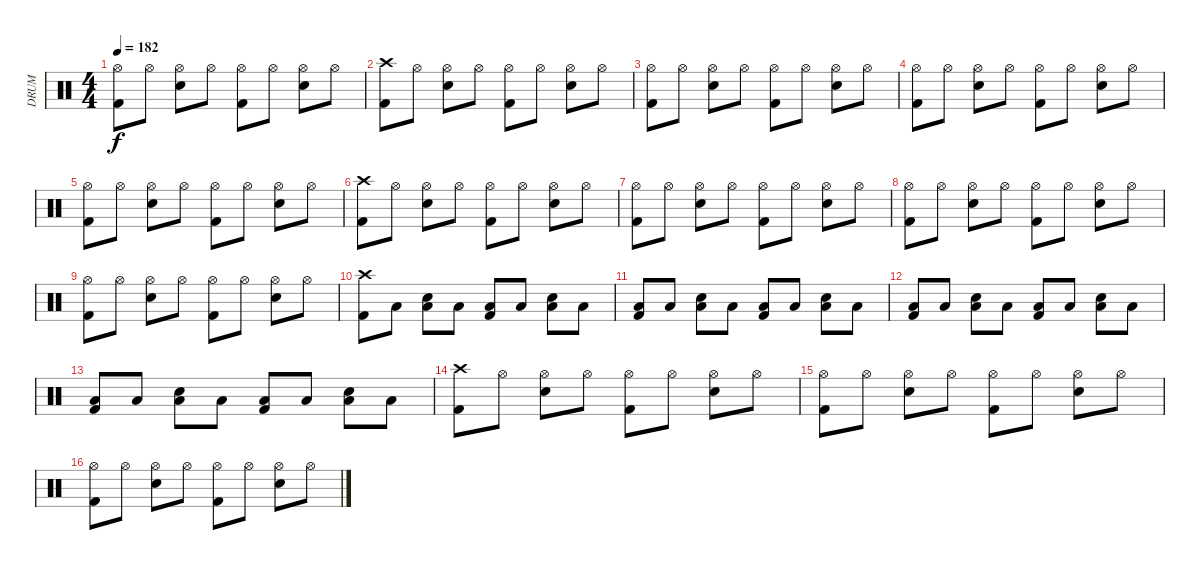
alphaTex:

\track ("DRUM" "DRUM") {instrument percussion}
\staff {score}
\articulation defaults
\ts (4 4)
\tempo 182
\clef neutral
\ks c
("Hi-Hat (open)" "Kick (hit) 2").8{dy f} "Hi-Hat (open)".8{volume 9} ("Hi-Hat (open)" "Snare (hit) 2").8 "Hi-Hat (open)".8{volume 9} ("Hi-Hat (open)" "Kick (hit) 2").8 "Hi-Hat (open)".8{volume 9} ("Hi-Hat (open)" "Snare (hit) 2").8 "Hi-Hat (open)".8{volume 9} |
("Crash high (hit)" "Kick (hit) 2").8 "Hi-Hat (open)".8{volume 9} ("Hi-Hat (open)" "Snare (hit) 2").8 "Hi-Hat (open)".8{volume 9} ("Hi-Hat (open)" "Kick (hit) 2").8 "Hi-Hat (open)".8{volume 9} ("Hi-Hat (open)" "Snare (hit) 2").8 "Hi-Hat (open)".8{volume 9} |
("Hi-Hat (open)" "Kick (hit) 2").8 "Hi-Hat (open)".8{volume 9} ("Hi-Hat (open)" "Snare (hit) 2").8 "Hi-Hat (open)".8{volume 9} ("Hi-Hat (open)" "Kick (hit) 2").8 "Hi-Hat (open)".8{volume 9} ("Hi-Hat (open)" "Snare (hit) 2").8 "Hi-Hat (open)".8{volume 9} |
("Hi-Hat (open)" "Kick (hit) 2").8 "Hi-Hat (open)".8{volume 9} ("Hi-Hat (open)" "Snare (hit) 2").8 "Hi-Hat (open)".8{volume 9} ("Hi-Hat (open)" "Kick (hit) 2").8 "Hi-Hat (open)".8{volume 9} ("Hi-Hat (open)" "Snare (hit) 2").8 "Hi-Hat (open)".8{volume 9} |
("Hi-Hat (open)" "Kick (hit) 2").8 "Hi-Hat (open)".8{volume 9} ("Hi-Hat (open)" "Snare (hit) 2").8 "Hi-Hat (open)".8{volume 9} ("Hi-Hat (open)" "Kick (hit) 2").8 "Hi-Hat (open)".8{volume 9} ("Hi-Hat (open)" "Snare (hit) 2").8 "Hi-Hat (open)".8{volume 9} |
("Crash high (hit)" "Kick (hit) 2").8 "Hi-Hat (open)".8{volume 9} ("Hi-Hat (open)" "Snare (hit) 2").8 "Hi-Hat (open)".8{volume 9} ("Hi-Hat (open)" "Kick (hit) 2").8 "Hi-Hat (open)".8{volume 9} ("Hi-Hat (open)" "Snare (hit) 2").8 "Hi-Hat (open)".8{volume 9} |
("Hi-Hat (open)" "Kick (hit) 2").8 "Hi-Hat (open)".8{volume 9} ("Hi-Hat (open)" "Snare (hit) 2").8 "Hi-Hat (open)".8{volume 9} ("Hi-Hat (open)" "Kick (hit) 2").8 "Hi-Hat (open)".8{volume 9} ("Hi-Hat (open)" "Snare (hit) 2").8 "Hi-Hat (open)".8{volume 9} |
("Hi-Hat (open)" "Kick (hit) 2").8 "Hi-Hat (open)".8{volume 9} ("Hi-Hat (open)" "Snare (hit) 2").8 "Hi-Hat (open)".8{volume 9} ("Hi-Hat (open)" "Kick (hit) 2").8 "Hi-Hat (open)".8{volume 9} ("Hi-Hat (open)" "Snare (hit) 2").8 "Hi-Hat (open)".8{volume 9} |
("Hi-Hat (open)" "Kick (hit) 2").8 "Hi-Hat (open)".8{volume 9} ("Hi-Hat (open)" "Snare (hit) 2").8 "Hi-Hat (open)".8{volume 9} ("Hi-Hat (open)" "Kick (hit) 2").8 "Hi-Hat (open)".8{volume 9} ("Hi-Hat (open)" "Snare (hit) 2").8 "Hi-Hat (open)".8{volume 9} |
("Crash high (hit)" "Kick (hit) 2").8 "Low Floor Tom (hit)".8{volume 9} ("Low Floor Tom (hit)" "Snare (hit) 2").8 "Low Floor Tom (hit)".8{volume 9} ("Low Floor Tom (hit)" "Kick (hit) 2").8 "Low Floor Tom (hit)".8{volume 9} ("Low Floor Tom (hit)" "Snare (hit) 2").8 "Low Floor Tom (hit)".8 |
("Low Floor Tom (hit)" "Kick (hit) 2").8 "Low Floor Tom (hit)".8{volume 9} ("Low Floor Tom (hit)" "Snare (hit) 2").8 "Low Floor Tom (hit)".8{volume 9} ("Low Floor Tom (hit)" "Kick (hit) 2").8 "Low Floor Tom (hit)".8{volume 9} ("Low Floor Tom (hit)" "Snare (hit) 2").8 "Low Floor Tom (hit)".8 |
("Low Floor Tom (hit)" "Kick (hit) 2").8 "Low Floor Tom (hit)".8{volume 9} ("Low Floor Tom (hit)" "Snare (hit) 2").8 "Low Floor Tom (hit)".8{volume 9} ("Low Floor Tom (hit)" "Kick (hit) 2").8 "Low Floor Tom (hit)".8{volume 9} ("Low Floor Tom (hit)" "Snare (hit) 2").8 "Low Floor Tom (hit)".8 |
("Low Floor Tom (hit)" "Kick (hit) 2").8 "Low Floor Tom (hit)".8{volume 9} ("Low Floor Tom (hit)" "Snare (hit) 2").8 "Low Floor Tom (hit)".8{volume 9} ("Low Floor Tom (hit)" "Kick (hit) 2").8 "Low Floor Tom (hit)".8{volume 9} ("Low Floor Tom (hit)" "Snare (hit) 2").8 "Low Floor Tom (hit)".8 |
("Crash high (hit)" "Kick (hit) 2").8 "Hi-Hat (open)".8{volume 9} ("Hi-Hat (open)" "Snare (hit) 2").8 "Hi-Hat (open)".8{volume 9} ("Hi-Hat (open)" "Kick (hit) 2").8 "Hi-Hat (open)".8{volume 9} ("Hi-Hat (open)" "Snare (hit) 2").8 "Hi-Hat (open)".8{volume 9} |
("Hi-Hat (open)" "Kick (hit) 2").8 "Hi-Hat (open)".8{volume 9} ("Hi-Hat (open)" "Snare (hit) 2").8 "Hi-Hat (open)".8{volume 9} ("Hi-Hat (open)" "Kick (hit) 2").8 "Hi-Hat (open)".8{volume 9} ("Hi-Hat (open)" "Snare (hit) 2").8 "Hi-Hat (open)".8{volume 9} |
("Hi-Hat (open)" "Kick (hit) 2").8 "Hi-Hat (open)".8{volume 9} ("Hi-Hat (open)" "Snare (hit) 2").8 "Hi-Hat (open)".8{volume 9} ("Hi-Hat (open)" "Kick (hit) 2").8 "Hi-Hat (open)".8{volume 9} ("Hi-Hat (open)" "Snare (hit) 2").8 "Hi-Hat (open)".8{volume 9}
